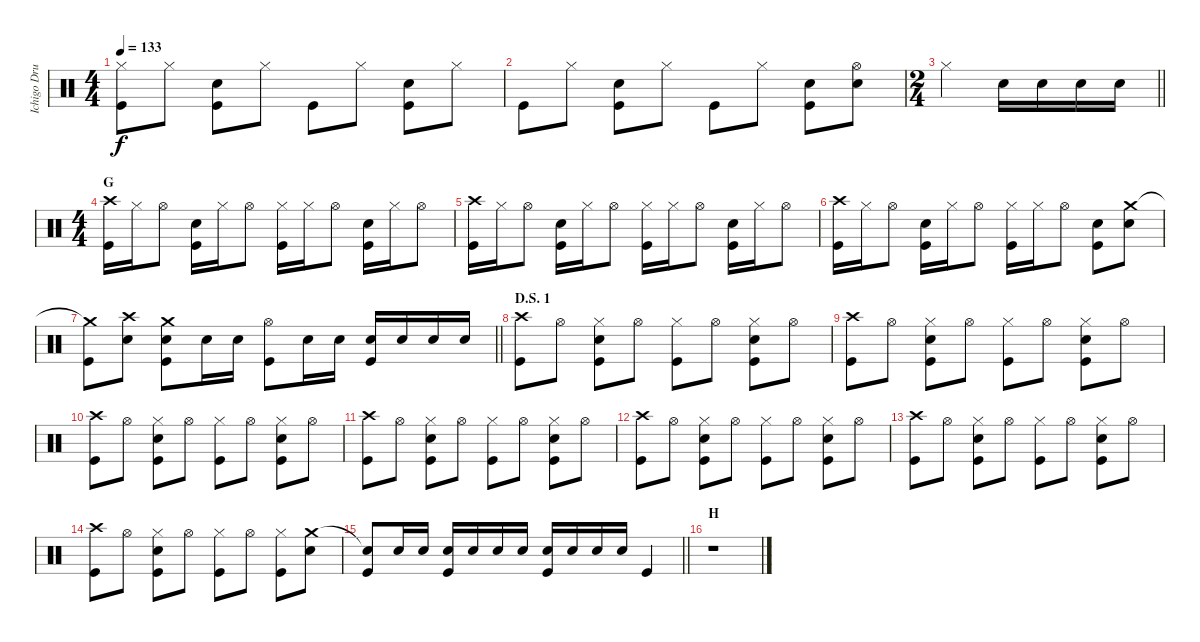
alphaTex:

\track ("Ichigo Drums" "Ichigo Dru") {instrument percussion}
\staff {score}
\articulation defaults
\ts (4 4)
\tempo 133
\clef neutral
\ks c
("Hi-Hat (closed)" "Kick (hit)").8{dy f} "Hi-Hat (closed)".8 ("Snare (hit) 2" "Kick (hit)").8 "Hi-Hat (closed)".8 "Kick (hit)".8 "Hi-Hat (closed)".8 ("Snare (hit) 2" "Kick (hit)").8 "Hi-Hat (closed)".8 |
"Kick (hit)".8 "Hi-Hat (closed)".8 ("Snare (hit) 2" "Kick (hit)").8 "Hi-Hat (closed)".8 "Kick (hit)".8 "Hi-Hat (closed)".8 ("Snare (hit) 2" "Kick (hit)").8 ("Hi-Hat (open)" "Snare (hit) 2").8 |
\ts (2 4)
\barLineRight lightlight "Hi-Hat (closed)".4 "Snare (hit) 2".16 "Snare (hit) 2".16 "Snare (hit) 2".16 "Snare (hit) 2".16
|
\ts (4 4)
\section ("" "G")
("Crash high (hit)" "Kick (hit)").16 "Hi-Hat (closed)".16 "Hi-Hat (open)".8 ("Snare (hit) 2" "Kick (hit)").16 "Hi-Hat (closed)".16 "Hi-Hat (open)".8 ("Hi-Hat (closed)" "Kick (hit)").16 "Hi-Hat (closed)".16 "Hi-Hat (open)".8 ("Snare (hit) 2" "Kick (hit)").16 "Hi-Hat (closed)".16 "Hi-Hat (open)".8 |
("Crash high (hit)" "Kick (hit)").16 "Hi-Hat (closed)".16 "Hi-Hat (open)".8 ("Snare (hit) 2" "Kick (hit)").16 "Hi-Hat (closed)".16 "Hi-Hat (open)".8 ("Hi-Hat (closed)" "Kick (hit)").16 "Hi-Hat (closed)".16 "Hi-Hat (open)".8 ("Snare (hit) 2" "Kick (hit)").16 "Hi-Hat (closed)".16 "Hi-Hat (open)".8 |
("Crash high (hit)" "Kick (hit)").16 "Hi-Hat (closed)".16 "Hi-Hat (open)".8 ("Snare (hit) 2" "Kick (hit)").16 "Hi-Hat (closed)".16 "Hi-Hat (open)".8 ("Hi-Hat (closed)" "Kick (hit)").16 "Hi-Hat (closed)".16 "Hi-Hat (open)".8 ("Snare (hit) 2" "Kick (hit)").8 ("Crash medium (hit)" "Snare (hit) 2").8 |
\barLineRight lightlight
("Crash medium (hit)"{t} "Kick (hit)").8 ("Crash high (hit)" "Snare (hit) 2").8 ("Crash medium (hit)" "Snare (hit) 2" "Kick (hit)").8 "Snare (hit) 2".16 "Snare (hit) 2".16 ("Hi-Hat (open)" "Kick (hit)").8 "Snare (hit) 2".16 "Snare (hit) 2".16 ("Snare (hit) 2" "Kick (hit)").16 "Snare (hit) 2".16 "Snare (hit) 2".16 "Snare (hit) 2".16 |
\section ("" "D.S. 1")
("Crash high (hit)" "Kick (hit)").8 "Hi-Hat (open)".8 ("Hi-Hat (closed)" "Snare (hit) 2" "Kick (hit)").8 "Hi-Hat (open)".8 ("Hi-Hat (closed)" "Kick (hit)").8 "Hi-Hat (open)".8 ("Hi-Hat (closed)" "Snare (hit) 2" "Kick (hit)").8 "Hi-Hat (open)".8 |
("Crash high (hit)" "Kick (hit)").8 "Hi-Hat (open)".8 ("Hi-Hat (closed)" "Snare (hit) 2" "Kick (hit)").8 "Hi-Hat (open)".8 ("Hi-Hat (closed)" "Kick (hit)").8 "Hi-Hat (open)".8 ("Hi-Hat (closed)" "Snare (hit) 2" "Kick (hit)").8 "Hi-Hat (open)".8 |
("Crash high (hit)" "Kick (hit)").8 "Hi-Hat (open)".8 ("Hi-Hat (closed)" "Snare (hit) 2" "Kick (hit)").8 "Hi-Hat (open)".8 ("Hi-Hat (closed)" "Kick (hit)").8 "Hi-Hat (open)".8 ("Hi-Hat (closed)" "Snare (hit) 2" "Kick (hit)").8 "Hi-Hat (open)".8 |
("Crash high (hit)" "Kick (hit)").8 "Hi-Hat (open)".8 ("Hi-Hat (closed)" "Snare (hit) 2" "Kick (hit)").8 "Hi-Hat (open)".8 ("Hi-Hat (closed)" "Kick (hit)").8 "Hi-Hat (open)".8 ("Hi-Hat (closed)" "Snare (hit) 2" "Kick (hit)").8 "Hi-Hat (open)".8 |
("Crash high (hit)" "Kick (hit)").8 "Hi-Hat (open)".8 ("Hi-Hat (closed)" "Snare (hit) 2" "Kick (hit)").8 "Hi-Hat (open)".8 ("Hi-Hat (closed)" "Kick (hit)").8 "Hi-Hat (open)".8 ("Hi-Hat (closed)" "Snare (hit) 2" "Kick (hit)").8 "Hi-Hat (open)".8 |
("Crash high (hit)" "Kick (hit)").8 "Hi-Hat (open)".8 ("Hi-Hat (closed)" "Snare (hit) 2" "Kick (hit)").8 "Hi-Hat (open)".8 ("Hi-Hat (closed)" "Kick (hit)").8 "Hi-Hat (open)".8 ("Hi-Hat (closed)" "Snare (hit) 2" "Kick (hit)").8 "Hi-Hat (open)".8 |
("Crash high (hit)" "Kick (hit)").8 "Hi-Hat (open)".8 ("Hi-Hat (closed)" "Snare (hit) 2" "Kick (hit)").8 "Hi-Hat (open)".8 ("Hi-Hat (closed)" "Kick (hit)").8 "Hi-Hat (open)".8 ("Hi-Hat (closed)" "Kick (hit)").8 ("Crash medium (hit)" "Snare (hit) 2").8 |
\barLineRight lightlight
("Snare (hit)"{t} "Kick (hit)").8 "Snare (hit) 2".16 "Snare (hit) 2".16 ("Snare (hit) 2" "Kick (hit)").16 "Snare (hit) 2".16 "Snare (hit) 2".16 "Snare (hit) 2".16 ("Snare (hit) 2" "Kick (hit)").16 "Snare (hit) 2".16 "Snare (hit) 2".16 "Snare (hit) 2".16 "Kick (hit)".4 |
\section ("" "H")
r.1
